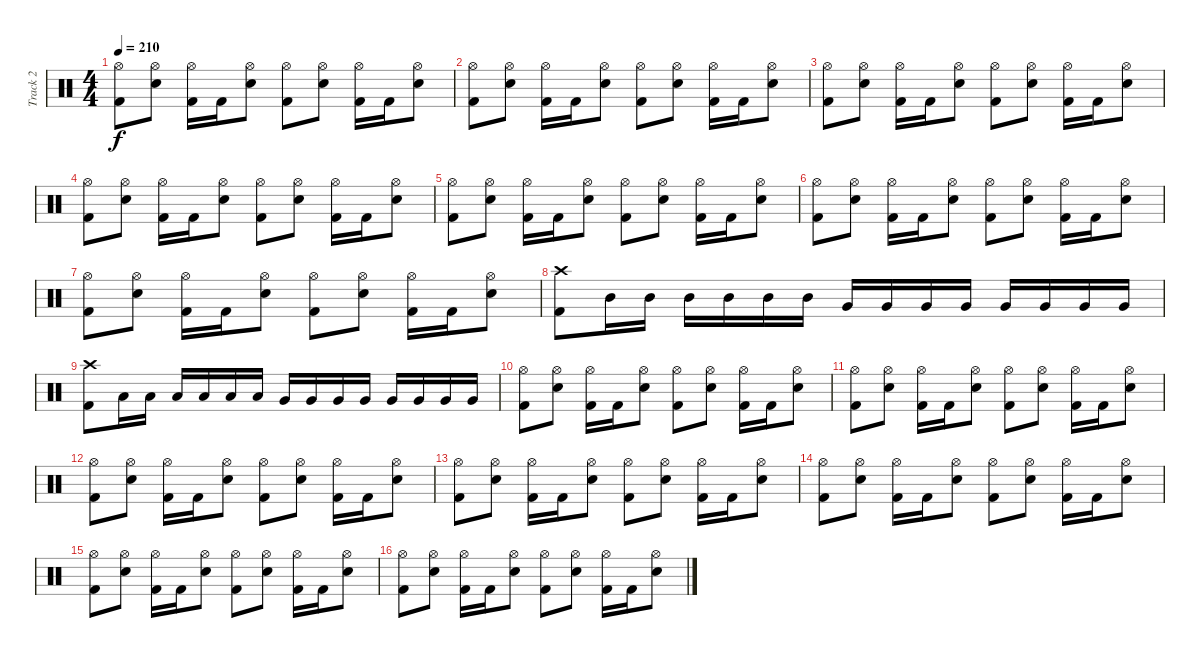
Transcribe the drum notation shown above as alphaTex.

\track ("Track 2" "Track 2") {instrument percussion}
\staff {score}
\articulation defaults
\ts (4 4)
\tempo 210
\clef neutral
\ks c
("Hi-Hat (open)" "Kick (hit) 2").8{dy f} ("Hi-Hat (open)" "Snare (hit) 2").8 ("Hi-Hat (open)" "Kick (hit) 2").16 "Kick (hit) 2".16 ("Hi-Hat (open)" "Snare (hit) 2").8 ("Hi-Hat (open)" "Kick (hit) 2").8 ("Hi-Hat (open)" "Snare (hit) 2").8 ("Hi-Hat (open)" "Kick (hit) 2").16 "Kick (hit) 2".16 ("Hi-Hat (open)" "Snare (hit) 2").8 |
("Hi-Hat (open)" "Kick (hit) 2").8 ("Hi-Hat (open)" "Snare (hit) 2").8 ("Hi-Hat (open)" "Kick (hit) 2").16 "Kick (hit) 2".16 ("Hi-Hat (open)" "Snare (hit) 2").8 ("Hi-Hat (open)" "Kick (hit) 2").8 ("Hi-Hat (open)" "Snare (hit) 2").8 ("Hi-Hat (open)" "Kick (hit) 2").16 "Kick (hit) 2".16 ("Hi-Hat (open)" "Snare (hit) 2").8 |
("Hi-Hat (open)" "Kick (hit) 2").8 ("Hi-Hat (open)" "Snare (hit) 2").8 ("Hi-Hat (open)" "Kick (hit) 2").16 "Kick (hit) 2".16 ("Hi-Hat (open)" "Snare (hit) 2").8 ("Hi-Hat (open)" "Kick (hit) 2").8 ("Hi-Hat (open)" "Snare (hit) 2").8 ("Hi-Hat (open)" "Kick (hit) 2").16 "Kick (hit) 2".16 ("Hi-Hat (open)" "Snare (hit) 2").8 |
("Hi-Hat (open)" "Kick (hit) 2").8 ("Hi-Hat (open)" "Snare (hit) 2").8 ("Hi-Hat (open)" "Kick (hit) 2").16 "Kick (hit) 2".16 ("Hi-Hat (open)" "Snare (hit) 2").8 ("Hi-Hat (open)" "Kick (hit) 2").8 ("Hi-Hat (open)" "Snare (hit) 2").8 ("Hi-Hat (open)" "Kick (hit) 2").16 "Kick (hit) 2".16 ("Hi-Hat (open)" "Snare (hit) 2").8 |
("Hi-Hat (open)" "Kick (hit) 2").8 ("Hi-Hat (open)" "Snare (hit) 2").8 ("Hi-Hat (open)" "Kick (hit) 2").16 "Kick (hit) 2".16 ("Hi-Hat (open)" "Snare (hit) 2").8 ("Hi-Hat (open)" "Kick (hit) 2").8 ("Hi-Hat (open)" "Snare (hit) 2").8 ("Hi-Hat (open)" "Kick (hit) 2").16 "Kick (hit) 2".16 ("Hi-Hat (open)" "Snare (hit) 2").8 |
("Hi-Hat (open)" "Kick (hit) 2").8 ("Hi-Hat (open)" "Snare (hit) 2").8 ("Hi-Hat (open)" "Kick (hit) 2").16 "Kick (hit) 2".16 ("Hi-Hat (open)" "Snare (hit) 2").8 ("Hi-Hat (open)" "Kick (hit) 2").8 ("Hi-Hat (open)" "Snare (hit) 2").8 ("Hi-Hat (open)" "Kick (hit) 2").16 "Kick (hit) 2".16 ("Hi-Hat (open)" "Snare (hit) 2").8 |
("Hi-Hat (open)" "Kick (hit) 2").8 ("Hi-Hat (open)" "Snare (hit) 2").8 ("Hi-Hat (open)" "Kick (hit) 2").16 "Kick (hit) 2".16 ("Hi-Hat (open)" "Snare (hit) 2").8 ("Hi-Hat (open)" "Kick (hit) 2").8 ("Hi-Hat (open)" "Snare (hit) 2").8 ("Hi-Hat (open)" "Kick (hit) 2").16 "Kick (hit) 2".16 ("Hi-Hat (open)" "Snare (hit) 2").8 |
("Crash high (hit)" "Kick (hit) 2").8 "Mid Tom (hit)".16 "Mid Tom (hit)".16 "Mid Tom (hit)".16 "Mid Tom (hit)".16 "Mid Tom (hit)".16 "Mid Tom (hit)".16 "Very Low Tom (hit)".16 "Very Low Tom (hit)".16 "Very Low Tom (hit)".16 "Very Low Tom (hit)".16 "Very Low Tom (hit)".16 "Very Low Tom (hit)".16 "Very Low Tom (hit)".16 "Very Low Tom (hit)".16 |
("Crash high (hit)" "Kick (hit) 2").8 "Low Tom (hit)".16 "Low Tom (hit)".16 "Low Tom (hit)".16 "Low Tom (hit)".16 "Low Tom (hit)".16 "Low Tom (hit)".16 "Very Low Tom (hit)".16 "Very Low Tom (hit)".16 "Very Low Tom (hit)".16 "Very Low Tom (hit)".16 "Very Low Tom (hit)".16 "Very Low Tom (hit)".16 "Very Low Tom (hit)".16 "Very Low Tom (hit)".16 |
("Hi-Hat (open)" "Kick (hit) 2").8 ("Hi-Hat (open)" "Snare (hit) 2").8 ("Hi-Hat (open)" "Kick (hit) 2").16 "Kick (hit) 2".16 ("Hi-Hat (open)" "Snare (hit) 2").8 ("Hi-Hat (open)" "Kick (hit) 2").8 ("Hi-Hat (open)" "Snare (hit) 2").8 ("Hi-Hat (open)" "Kick (hit) 2").16 "Kick (hit) 2".16 ("Hi-Hat (open)" "Snare (hit) 2").8 |
("Hi-Hat (open)" "Kick (hit) 2").8 ("Hi-Hat (open)" "Snare (hit) 2").8 ("Hi-Hat (open)" "Kick (hit) 2").16 "Kick (hit) 2".16 ("Hi-Hat (open)" "Snare (hit) 2").8 ("Hi-Hat (open)" "Kick (hit) 2").8 ("Hi-Hat (open)" "Snare (hit) 2").8 ("Hi-Hat (open)" "Kick (hit) 2").16 "Kick (hit) 2".16 ("Hi-Hat (open)" "Snare (hit) 2").8 |
("Hi-Hat (open)" "Kick (hit) 2").8 ("Hi-Hat (open)" "Snare (hit) 2").8 ("Hi-Hat (open)" "Kick (hit) 2").16 "Kick (hit) 2".16 ("Hi-Hat (open)" "Snare (hit) 2").8 ("Hi-Hat (open)" "Kick (hit) 2").8 ("Hi-Hat (open)" "Snare (hit) 2").8 ("Hi-Hat (open)" "Kick (hit) 2").16 "Kick (hit) 2".16 ("Hi-Hat (open)" "Snare (hit) 2").8 |
("Hi-Hat (open)" "Kick (hit) 2").8 ("Hi-Hat (open)" "Snare (hit) 2").8 ("Hi-Hat (open)" "Kick (hit) 2").16 "Kick (hit) 2".16 ("Hi-Hat (open)" "Snare (hit) 2").8 ("Hi-Hat (open)" "Kick (hit) 2").8 ("Hi-Hat (open)" "Snare (hit) 2").8 ("Hi-Hat (open)" "Kick (hit) 2").16 "Kick (hit) 2".16 ("Hi-Hat (open)" "Snare (hit) 2").8 |
("Hi-Hat (open)" "Kick (hit) 2").8 ("Hi-Hat (open)" "Snare (hit) 2").8 ("Hi-Hat (open)" "Kick (hit) 2").16 "Kick (hit) 2".16 ("Hi-Hat (open)" "Snare (hit) 2").8 ("Hi-Hat (open)" "Kick (hit) 2").8 ("Hi-Hat (open)" "Snare (hit) 2").8 ("Hi-Hat (open)" "Kick (hit) 2").16 "Kick (hit) 2".16 ("Hi-Hat (open)" "Snare (hit) 2").8 |
("Hi-Hat (open)" "Kick (hit) 2").8 ("Hi-Hat (open)" "Snare (hit) 2").8 ("Hi-Hat (open)" "Kick (hit) 2").16 "Kick (hit) 2".16 ("Hi-Hat (open)" "Snare (hit) 2").8 ("Hi-Hat (open)" "Kick (hit) 2").8 ("Hi-Hat (open)" "Snare (hit) 2").8 ("Hi-Hat (open)" "Kick (hit) 2").16 "Kick (hit) 2".16 ("Hi-Hat (open)" "Snare (hit) 2").8 |
("Hi-Hat (open)" "Kick (hit) 2").8 ("Hi-Hat (open)" "Snare (hit) 2").8 ("Hi-Hat (open)" "Kick (hit) 2").16 "Kick (hit) 2".16 ("Hi-Hat (open)" "Snare (hit) 2").8 ("Hi-Hat (open)" "Kick (hit) 2").8 ("Hi-Hat (open)" "Snare (hit) 2").8 ("Hi-Hat (open)" "Kick (hit) 2").16 "Kick (hit) 2".16 ("Hi-Hat (open)" "Snare (hit) 2").8
